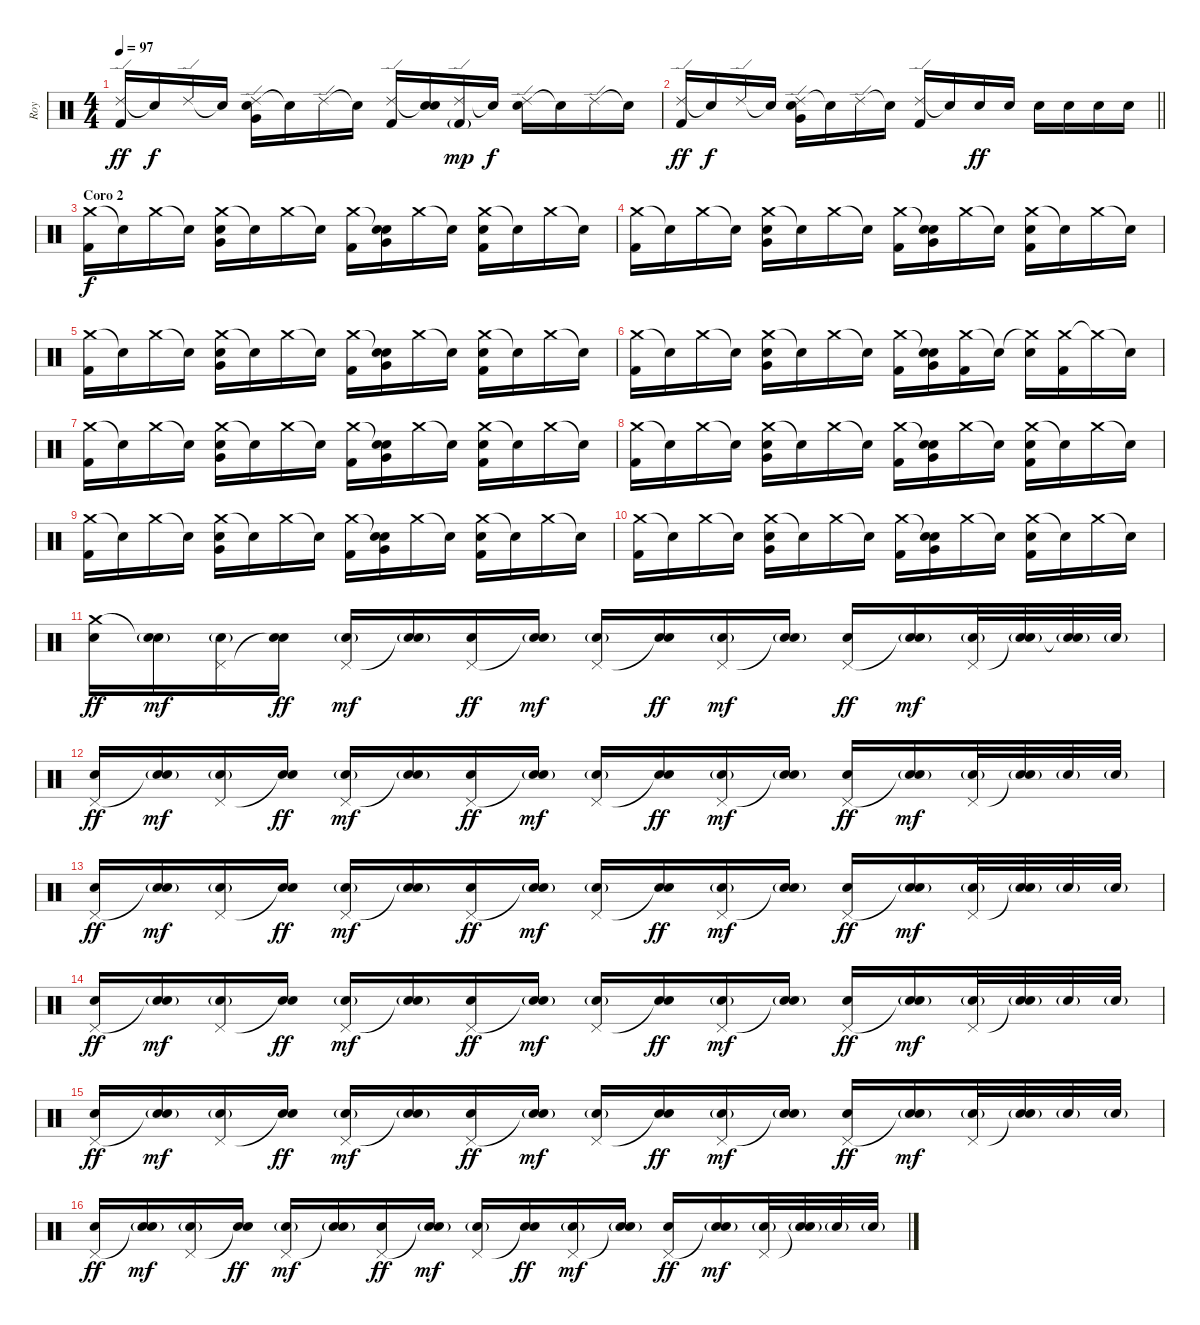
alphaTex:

\track ("Roy" "Roy") {instrument percussion}
\staff {score}
\articulation defaults
\ts (4 4)
\tempo 97
\clef neutral
\ks c
("Ride (edge) 2" "Kick (hit) 2").16{dy ff} "Snare (hit)"{t}.16{dy f} "Ride (edge) 2".16 "Snare (hit)"{t}.16 ("Ride (edge) 2" "Electric Snare (hit)" "Very Low Tom (hit)").16 "Snare (hit)"{t}.16 "Ride (edge) 2".16 "Snare (hit)"{t}.16 ("Ride (edge) 2" "Kick (hit) 2").16 ("Snare (hit)"{t} "Electric Snare (hit)").16 ("Ride (edge) 2" "Kick (hit) 2"{g}).16{dy mp} "Snare (hit)"{t}.16{dy f} ("Ride (edge) 2" "Electric Snare (hit)").16 "Snare (hit)"{t}.16 "Ride (edge) 2".16 "Snare (hit)"{t}.16 |
\barLineRight lightlight
("Ride (edge) 2" "Kick (hit) 2").16{dy ff} "Snare (hit)"{t}.16{dy f} "Ride (edge) 2".16 "Snare (hit)"{t}.16 ("Ride (edge) 2" "Electric Snare (hit)" "Very Low Tom (hit)").16 "Snare (hit)"{t}.16 "Ride (edge) 2".16 "Snare (hit)"{t}.16 ("Ride (edge) 2" "Kick (hit) 2").16 "Snare (hit)"{t}.16 "Electric Snare (hit)".16{dy ff} "Electric Snare (hit)".16 "Electric Snare (hit)".16 "Electric Snare (hit)".16 "Electric Snare (hit)".16 "Electric Snare (hit)".16 |
\section ("" "Coro 2")
("Crash medium (hit)" "Kick (hit) 2").16{dy f} "Snare (hit)"{t}.16 "Crash medium (hit)".16 "Snare (hit)"{t}.16 ("Crash medium (hit)" "Electric Snare (hit)" "Very Low Tom (hit)").16 "Snare (hit)"{t}.16 "Crash medium (hit)".16 "Snare (hit)"{t}.16 ("Crash medium (hit)" "Kick (hit) 2").16 ("Snare (hit)"{t} "Electric Snare (hit)" "Very Low Tom (hit)").16 "Crash medium (hit)".16 "Snare (hit)"{t}.16 ("Crash medium (hit)" "Electric Snare (hit)" "Kick (hit) 2").16 "Snare (hit)"{t}.16 "Crash medium (hit)".16 "Snare (hit)"{t}.16 |
("Crash medium (hit)" "Kick (hit) 2").16 "Snare (hit)"{t}.16 "Crash medium (hit)".16 "Snare (hit)"{t}.16 ("Crash medium (hit)" "Electric Snare (hit)" "Very Low Tom (hit)").16 "Snare (hit)"{t}.16 "Crash medium (hit)".16 "Snare (hit)"{t}.16 ("Crash medium (hit)" "Kick (hit) 2").16 ("Snare (hit)"{t} "Electric Snare (hit)" "Very Low Tom (hit)").16 "Crash medium (hit)".16 "Snare (hit)"{t}.16 ("Crash medium (hit)" "Electric Snare (hit)" "Kick (hit) 2").16 "Snare (hit)"{t}.16 "Crash medium (hit)".16 "Snare (hit)"{t}.16 |
("Crash medium (hit)" "Kick (hit) 2").16 "Snare (hit)"{t}.16 "Crash medium (hit)".16 "Snare (hit)"{t}.16 ("Crash medium (hit)" "Electric Snare (hit)" "Very Low Tom (hit)").16 "Snare (hit)"{t}.16 "Crash medium (hit)".16 "Snare (hit)"{t}.16 ("Crash medium (hit)" "Kick (hit) 2").16 ("Snare (hit)"{t} "Electric Snare (hit)" "Very Low Tom (hit)").16 "Crash medium (hit)".16 "Snare (hit)"{t}.16 ("Crash medium (hit)" "Electric Snare (hit)" "Kick (hit) 2").16 "Snare (hit)"{t}.16 "Crash medium (hit)".16 "Snare (hit)"{t}.16 |
("Crash medium (hit)" "Kick (hit) 2").16 "Snare (hit)"{t}.16 "Crash medium (hit)".16 "Snare (hit)"{t}.16 ("Crash medium (hit)" "Electric Snare (hit)" "Very Low Tom (hit)").16 "Snare (hit)"{t}.16 "Crash medium (hit)".16 "Snare (hit)"{t}.16 ("Crash medium (hit)" "Kick (hit) 2").16 ("Snare (hit)"{t} "Electric Snare (hit)" "Very Low Tom (hit)").16 ("Crash medium (hit)" "Kick (hit) 2").16 "Snare (hit)"{t}.16 ("Crash medium (hit)"{t} "Electric Snare (hit)").16 ("Crash medium (hit)" "Kick (hit) 2").16 "Crash medium (hit)"{t}.16 "Snare (hit)"{t}.16 |
("Crash medium (hit)" "Kick (hit) 2").16 "Snare (hit)"{t}.16 "Crash medium (hit)".16 "Snare (hit)"{t}.16 ("Crash medium (hit)" "Electric Snare (hit)" "Very Low Tom (hit)").16 "Snare (hit)"{t}.16 "Crash medium (hit)".16 "Snare (hit)"{t}.16 ("Crash medium (hit)" "Kick (hit) 2").16 ("Snare (hit)"{t} "Electric Snare (hit)" "Very Low Tom (hit)").16 "Crash medium (hit)".16 "Snare (hit)"{t}.16 ("Crash medium (hit)" "Electric Snare (hit)" "Kick (hit) 2").16 "Snare (hit)"{t}.16 "Crash medium (hit)".16 "Snare (hit)"{t}.16 |
("Crash medium (hit)" "Kick (hit) 2").16 "Snare (hit)"{t}.16 "Crash medium (hit)".16 "Snare (hit)"{t}.16 ("Crash medium (hit)" "Electric Snare (hit)" "Very Low Tom (hit)").16 "Snare (hit)"{t}.16 "Crash medium (hit)".16 "Snare (hit)"{t}.16 ("Crash medium (hit)" "Kick (hit) 2").16 ("Snare (hit)"{t} "Electric Snare (hit)" "Very Low Tom (hit)").16 "Crash medium (hit)".16 "Snare (hit)"{t}.16 ("Crash medium (hit)" "Electric Snare (hit)" "Kick (hit) 2").16 "Snare (hit)"{t}.16 "Crash medium (hit)".16 "Snare (hit)"{t}.16 |
("Crash medium (hit)" "Kick (hit) 2").16 "Snare (hit)"{t}.16 "Crash medium (hit)".16 "Snare (hit)"{t}.16 ("Crash medium (hit)" "Electric Snare (hit)" "Very Low Tom (hit)").16 "Snare (hit)"{t}.16 "Crash medium (hit)".16 "Snare (hit)"{t}.16 ("Crash medium (hit)" "Kick (hit) 2").16 ("Snare (hit)"{t} "Electric Snare (hit)" "Very Low Tom (hit)").16 "Crash medium (hit)".16 "Snare (hit)"{t}.16 ("Crash medium (hit)" "Electric Snare (hit)" "Kick (hit) 2").16 "Snare (hit)"{t}.16 "Crash medium (hit)".16 "Snare (hit)"{t}.16 |
("Crash medium (hit)" "Kick (hit) 2").16 "Snare (hit)"{t}.16 "Crash medium (hit)".16 "Snare (hit)"{t}.16 ("Crash medium (hit)" "Electric Snare (hit)" "Very Low Tom (hit)").16 "Snare (hit)"{t}.16 "Crash medium (hit)".16 "Snare (hit)"{t}.16 ("Crash medium (hit)" "Kick (hit) 2").16 ("Snare (hit)"{t} "Electric Snare (hit)" "Very Low Tom (hit)").16 "Crash medium (hit)".16 "Snare (hit)"{t}.16 ("Crash medium (hit)" "Electric Snare (hit)" "Kick (hit) 2").16 "Snare (hit)"{t}.16 "Crash medium (hit)".16 "Snare (hit)"{t}.16 |
("Crash medium (hit)" "Electric Snare (hit)").16{dy ff} ("Snare (hit)"{t} "Electric Snare (hit)"{g}).16{dy mf} ("Pedal Hi-Hat (hit)" "Electric Snare (hit)"{g}).16 ("Snare (hit)"{t} "Electric Snare (hit)").16{dy ff} ("Pedal Hi-Hat (hit)" "Electric Snare (hit)"{g}).16{dy mf} ("Snare (hit)"{t} "Electric Snare (hit)"{g}).16 ("Pedal Hi-Hat (hit)" "Electric Snare (hit)").16{dy ff} ("Snare (hit)"{t} "Electric Snare (hit)"{g}).16{dy mf} ("Pedal Hi-Hat (hit)" "Electric Snare (hit)"{g}).16 ("Snare (hit)"{t} "Electric Snare (hit)").16{dy ff} ("Pedal Hi-Hat (hit)" "Electric Snare (hit)"{g}).16{dy mf} ("Snare (hit)"{t} "Electric Snare (hit)"{g}).16 ("Pedal Hi-Hat (hit)" "Electric Snare (hit)").16{dy ff} ("Snare (hit)"{t} "Electric Snare (hit)"{g}).16{dy mf} ("Pedal Hi-Hat (hit)" "Electric Snare (hit)"{g}).32 ("Snare (hit)"{t} "Electric Snare (hit)"{g}).32 ("Snare (hit)"{t} "Electric Snare (hit)"{g}).32 "Electric Snare (hit)"{g}.32 |
("Pedal Hi-Hat (hit)" "Electric Snare (hit)").16{dy ff} ("Snare (hit)"{t} "Electric Snare (hit)"{g}).16{dy mf} ("Pedal Hi-Hat (hit)" "Electric Snare (hit)"{g}).16 ("Snare (hit)"{t} "Electric Snare (hit)").16{dy ff} ("Pedal Hi-Hat (hit)" "Electric Snare (hit)"{g}).16{dy mf} ("Snare (hit)"{t} "Electric Snare (hit)"{g}).16 ("Pedal Hi-Hat (hit)" "Electric Snare (hit)").16{dy ff} ("Snare (hit)"{t} "Electric Snare (hit)"{g}).16{dy mf} ("Pedal Hi-Hat (hit)" "Electric Snare (hit)"{g}).16 ("Snare (hit)"{t} "Electric Snare (hit)").16{dy ff} ("Pedal Hi-Hat (hit)" "Electric Snare (hit)"{g}).16{dy mf} ("Snare (hit)"{t} "Electric Snare (hit)"{g}).16 ("Pedal Hi-Hat (hit)" "Electric Snare (hit)").16{dy ff} ("Snare (hit)"{t} "Electric Snare (hit)"{g}).16{dy mf} ("Pedal Hi-Hat (hit)" "Electric Snare (hit)"{g}).32 ("Snare (hit)"{t} "Electric Snare (hit)"{g}).32 "Electric Snare (hit)"{g}.32 "Electric Snare (hit)"{g}.32 |
("Pedal Hi-Hat (hit)" "Electric Snare (hit)").16{dy ff} ("Snare (hit)"{t} "Electric Snare (hit)"{g}).16{dy mf} ("Pedal Hi-Hat (hit)" "Electric Snare (hit)"{g}).16 ("Snare (hit)"{t} "Electric Snare (hit)").16{dy ff} ("Pedal Hi-Hat (hit)" "Electric Snare (hit)"{g}).16{dy mf} ("Snare (hit)"{t} "Electric Snare (hit)"{g}).16 ("Pedal Hi-Hat (hit)" "Electric Snare (hit)").16{dy ff} ("Snare (hit)"{t} "Electric Snare (hit)"{g}).16{dy mf} ("Pedal Hi-Hat (hit)" "Electric Snare (hit)"{g}).16 ("Snare (hit)"{t} "Electric Snare (hit)").16{dy ff} ("Pedal Hi-Hat (hit)" "Electric Snare (hit)"{g}).16{dy mf} ("Snare (hit)"{t} "Electric Snare (hit)"{g}).16 ("Pedal Hi-Hat (hit)" "Electric Snare (hit)").16{dy ff} ("Snare (hit)"{t} "Electric Snare (hit)"{g}).16{dy mf} ("Pedal Hi-Hat (hit)" "Electric Snare (hit)"{g}).32 ("Snare (hit)"{t} "Electric Snare (hit)"{g}).32 "Electric Snare (hit)"{g}.32 "Electric Snare (hit)"{g}.32 |
("Pedal Hi-Hat (hit)" "Electric Snare (hit)").16{dy ff} ("Snare (hit)"{t} "Electric Snare (hit)"{g}).16{dy mf} ("Pedal Hi-Hat (hit)" "Electric Snare (hit)"{g}).16 ("Snare (hit)"{t} "Electric Snare (hit)").16{dy ff} ("Pedal Hi-Hat (hit)" "Electric Snare (hit)"{g}).16{dy mf} ("Snare (hit)"{t} "Electric Snare (hit)"{g}).16 ("Pedal Hi-Hat (hit)" "Electric Snare (hit)").16{dy ff} ("Snare (hit)"{t} "Electric Snare (hit)"{g}).16{dy mf} ("Pedal Hi-Hat (hit)" "Electric Snare (hit)"{g}).16 ("Snare (hit)"{t} "Electric Snare (hit)").16{dy ff} ("Pedal Hi-Hat (hit)" "Electric Snare (hit)"{g}).16{dy mf} ("Snare (hit)"{t} "Electric Snare (hit)"{g}).16 ("Pedal Hi-Hat (hit)" "Electric Snare (hit)").16{dy ff} ("Snare (hit)"{t} "Electric Snare (hit)"{g}).16{dy mf} ("Pedal Hi-Hat (hit)" "Electric Snare (hit)"{g}).32 ("Snare (hit)"{t} "Electric Snare (hit)"{g}).32 "Electric Snare (hit)"{g}.32 "Electric Snare (hit)"{g}.32 |
("Pedal Hi-Hat (hit)" "Electric Snare (hit)").16{dy ff} ("Snare (hit)"{t} "Electric Snare (hit)"{g}).16{dy mf} ("Pedal Hi-Hat (hit)" "Electric Snare (hit)"{g}).16 ("Snare (hit)"{t} "Electric Snare (hit)").16{dy ff} ("Pedal Hi-Hat (hit)" "Electric Snare (hit)"{g}).16{dy mf} ("Snare (hit)"{t} "Electric Snare (hit)"{g}).16 ("Pedal Hi-Hat (hit)" "Electric Snare (hit)").16{dy ff} ("Snare (hit)"{t} "Electric Snare (hit)"{g}).16{dy mf} ("Pedal Hi-Hat (hit)" "Electric Snare (hit)"{g}).16 ("Snare (hit)"{t} "Electric Snare (hit)").16{dy ff} ("Pedal Hi-Hat (hit)" "Electric Snare (hit)"{g}).16{dy mf} ("Snare (hit)"{t} "Electric Snare (hit)"{g}).16 ("Pedal Hi-Hat (hit)" "Electric Snare (hit)").16{dy ff} ("Snare (hit)"{t} "Electric Snare (hit)"{g}).16{dy mf} ("Pedal Hi-Hat (hit)" "Electric Snare (hit)"{g}).32 ("Snare (hit)"{t} "Electric Snare (hit)"{g}).32 "Electric Snare (hit)"{g}.32 "Electric Snare (hit)"{g}.32 |
("Pedal Hi-Hat (hit)" "Electric Snare (hit)").16{dy ff} ("Snare (hit)"{t} "Electric Snare (hit)"{g}).16{dy mf} ("Pedal Hi-Hat (hit)" "Electric Snare (hit)"{g}).16 ("Snare (hit)"{t} "Electric Snare (hit)").16{dy ff} ("Pedal Hi-Hat (hit)" "Electric Snare (hit)"{g}).16{dy mf} ("Snare (hit)"{t} "Electric Snare (hit)"{g}).16 ("Pedal Hi-Hat (hit)" "Electric Snare (hit)").16{dy ff} ("Snare (hit)"{t} "Electric Snare (hit)"{g}).16{dy mf} ("Pedal Hi-Hat (hit)" "Electric Snare (hit)"{g}).16 ("Snare (hit)"{t} "Electric Snare (hit)").16{dy ff} ("Pedal Hi-Hat (hit)" "Electric Snare (hit)"{g}).16{dy mf} ("Snare (hit)"{t} "Electric Snare (hit)"{g}).16 ("Pedal Hi-Hat (hit)" "Electric Snare (hit)").16{dy ff} ("Snare (hit)"{t} "Electric Snare (hit)"{g}).16{dy mf} ("Pedal Hi-Hat (hit)" "Electric Snare (hit)"{g}).32 ("Snare (hit)"{t} "Electric Snare (hit)"{g}).32 "Electric Snare (hit)"{g}.32 "Electric Snare (hit)"{g}.32
